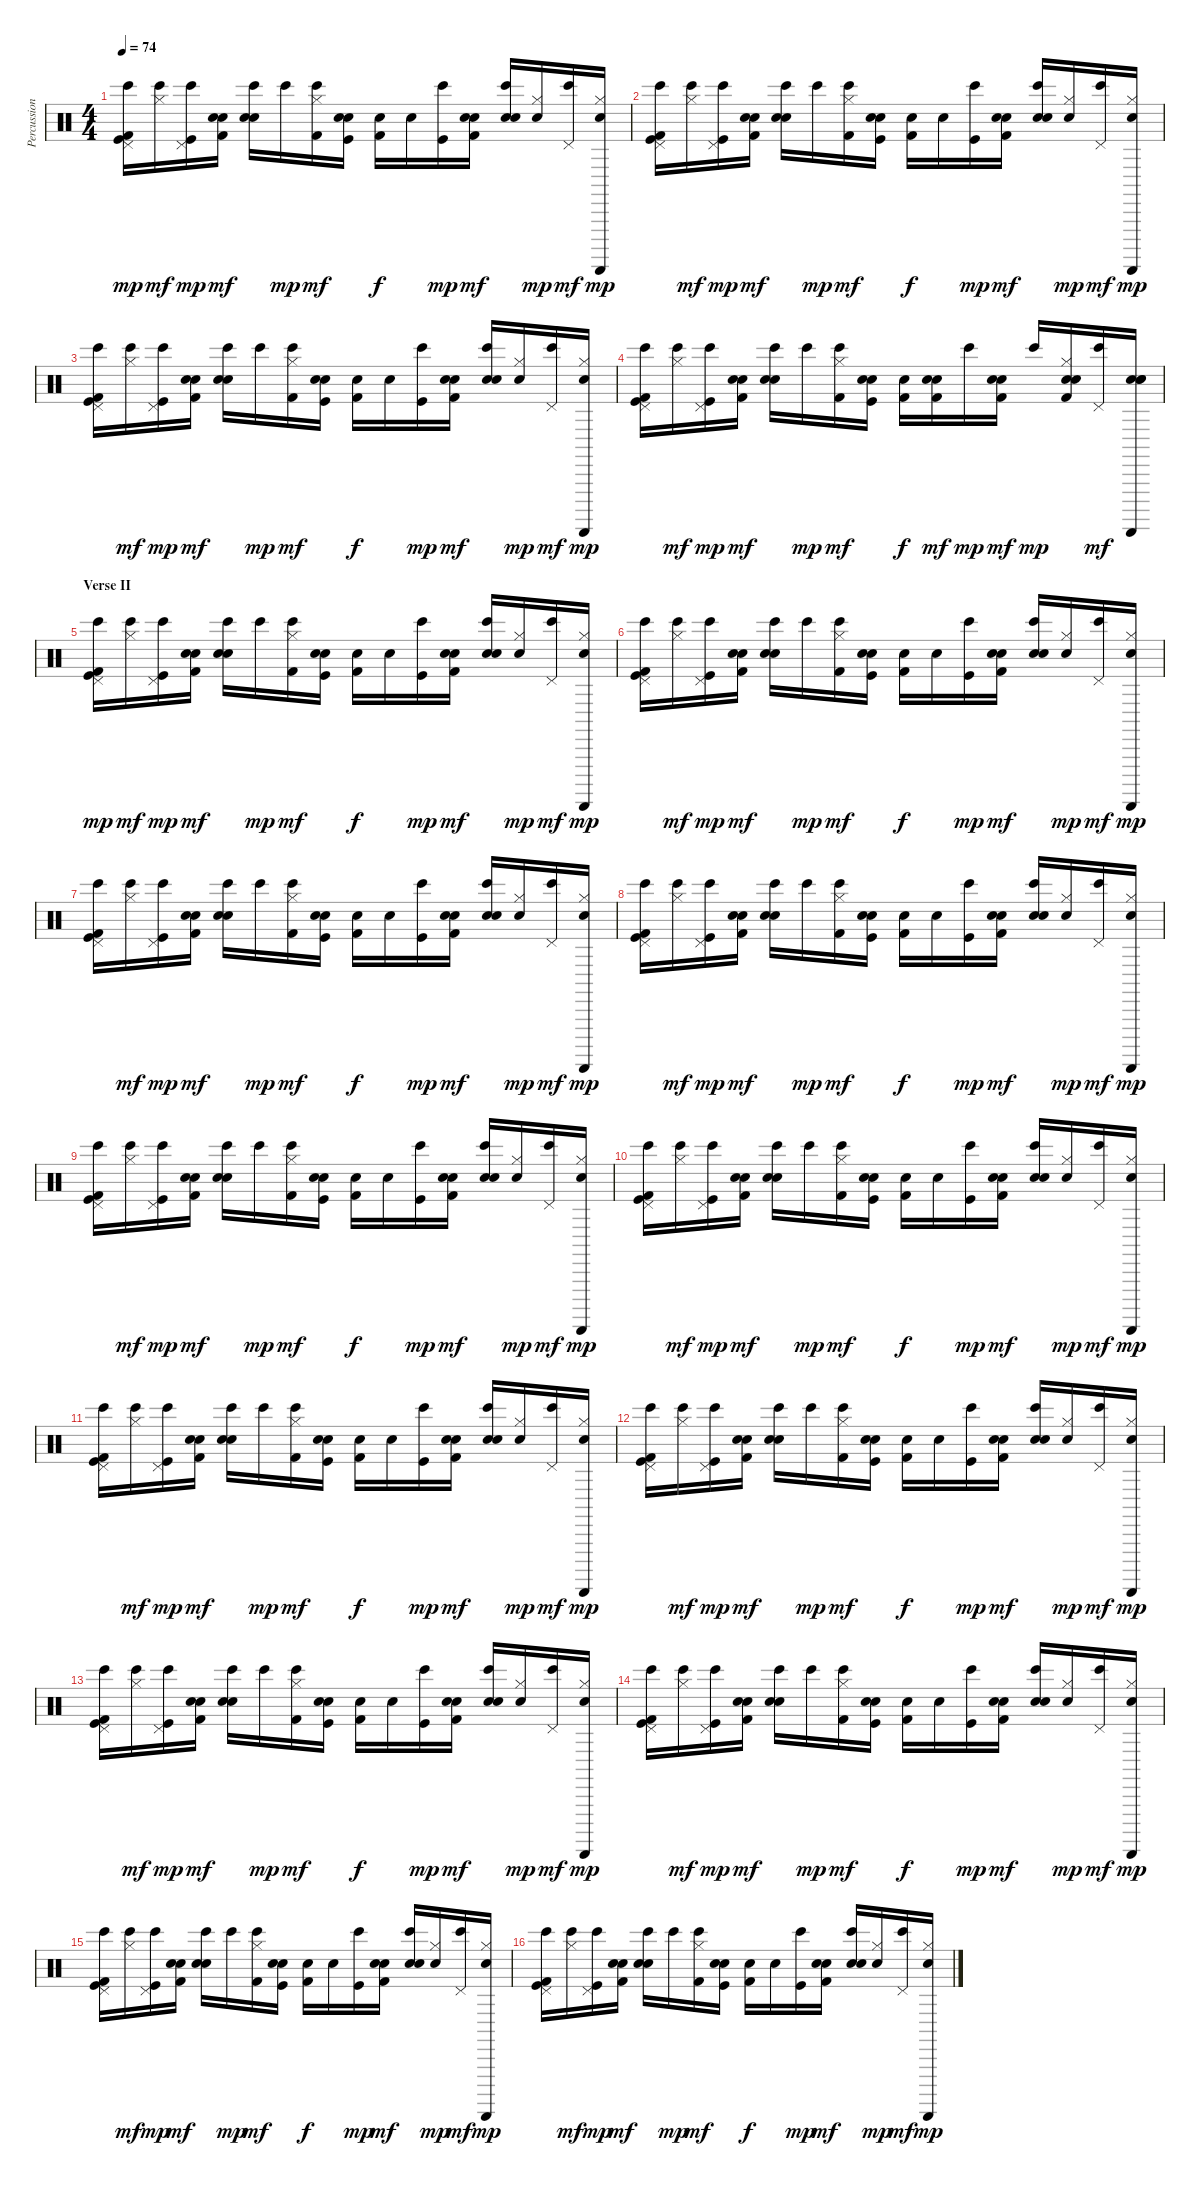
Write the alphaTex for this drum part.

\track ("Percussion" "Percussion") {instrument percussion}
\staff {score}
\articulation defaults
\ts (4 4)
\tempo 74
\clef neutral
\ks c
("Bongo High (hit)" "Pedal Hi-Hat (hit)" "Kick (hit) 2" "Kick (hit)").16{dy mp} ("Bongo High (hit)" "Hi-Hat (closed)").16{dy mf} ("Bongo High (hit)" "Pedal Hi-Hat (hit)" "Kick (hit)").16{dy mp} ("Snare (hit)" "Electric Snare (hit)" "Kick (hit) 2").16{dy mf} ("Bongo High (hit)" "Electric Snare (hit)" "Snare (hit) 2").16 "Bongo High (hit)".16{dy mp} ("Bongo High (hit)" "Hi-Hat (closed)" "Kick (hit) 2").16{dy mf} ("Snare (hit)" "Electric Snare (hit)" "Kick (hit)").16 ("Snare (hit)" "Kick (hit) 2").16{dy f} "Snare (hit)".16 ("Bongo High (hit)" "Kick (hit)").16{dy mp} ("Snare (hit)" "Electric Snare (hit)" "Kick (hit) 2").16{dy mf} ("Bongo High (hit)" "Electric Snare (hit)" "Snare (hit) 2").16 ("Snare (hit)" "Hi-Hat (closed)").16{dy mp} ("Bongo High (hit)" "Pedal Hi-Hat (hit)").16{dy mf} ("Snare (hit)" "Guiro (scrap-return)" "Hi-Hat (closed)").16{dy mp} |
("Bongo High (hit)" "Pedal Hi-Hat (hit)" "Kick (hit) 2" "Kick (hit)").16 ("Bongo High (hit)" "Hi-Hat (closed)").16{dy mf} ("Bongo High (hit)" "Pedal Hi-Hat (hit)" "Kick (hit)").16{dy mp} ("Snare (hit)" "Electric Snare (hit)" "Kick (hit) 2").16{dy mf} ("Bongo High (hit)" "Electric Snare (hit)" "Snare (hit) 2").16 "Bongo High (hit)".16{dy mp} ("Bongo High (hit)" "Hi-Hat (closed)" "Kick (hit) 2").16{dy mf} ("Snare (hit)" "Electric Snare (hit)" "Kick (hit)").16 ("Snare (hit)" "Kick (hit) 2").16{dy f} "Snare (hit)".16 ("Bongo High (hit)" "Kick (hit)").16{dy mp} ("Snare (hit)" "Electric Snare (hit)" "Kick (hit) 2").16{dy mf} ("Bongo High (hit)" "Electric Snare (hit)" "Snare (hit) 2").16 ("Snare (hit)" "Hi-Hat (closed)").16{dy mp} ("Bongo High (hit)" "Pedal Hi-Hat (hit)").16{dy mf} ("Snare (hit)" "Guiro (scrap-return)" "Hi-Hat (closed)").16{dy mp} |
("Bongo High (hit)" "Pedal Hi-Hat (hit)" "Kick (hit) 2" "Kick (hit)").16 ("Bongo High (hit)" "Hi-Hat (closed)").16{dy mf} ("Bongo High (hit)" "Pedal Hi-Hat (hit)" "Kick (hit)").16{dy mp} ("Snare (hit)" "Electric Snare (hit)" "Kick (hit) 2").16{dy mf} ("Bongo High (hit)" "Electric Snare (hit)" "Snare (hit) 2").16 "Bongo High (hit)".16{dy mp} ("Bongo High (hit)" "Hi-Hat (closed)" "Kick (hit) 2").16{dy mf} ("Snare (hit)" "Electric Snare (hit)" "Kick (hit)").16 ("Snare (hit)" "Kick (hit) 2").16{dy f} "Snare (hit)".16 ("Bongo High (hit)" "Kick (hit)").16{dy mp} ("Snare (hit)" "Electric Snare (hit)" "Kick (hit) 2").16{dy mf} ("Bongo High (hit)" "Electric Snare (hit)" "Snare (hit) 2").16 ("Snare (hit)" "Hi-Hat (closed)").16{dy mp} ("Bongo High (hit)" "Pedal Hi-Hat (hit)").16{dy mf} ("Snare (hit)" "Guiro (scrap-return)" "Hi-Hat (closed)").16{dy mp} |
("Bongo High (hit)" "Pedal Hi-Hat (hit)" "Kick (hit) 2" "Kick (hit)").16 ("Bongo High (hit)" "Hi-Hat (closed)").16{dy mf} ("Bongo High (hit)" "Pedal Hi-Hat (hit)" "Kick (hit)").16{dy mp} ("Snare (hit)" "Electric Snare (hit)" "Kick (hit) 2").16{dy mf} ("Bongo High (hit)" "Electric Snare (hit)" "Snare (hit) 2").16 "Bongo High (hit)".16{dy mp} ("Bongo High (hit)" "Hi-Hat (closed)" "Kick (hit) 2").16{dy mf} ("Snare (hit)" "Electric Snare (hit)" "Kick (hit)").16 ("Snare (hit)" "Kick (hit) 2").16{dy f} ("Snare (hit)" "Electric Snare (hit)" "Kick (hit) 2").16{dy mf} "Bongo High (hit)".16{dy mp} ("Snare (hit)" "Electric Snare (hit)" "Kick (hit) 2").16{dy mf} "Bongo High (hit)".16{dy mp} ("Snare (hit)" "Hi-Hat (closed)" "Electric Snare (hit)" "Kick (hit) 2").16 ("Bongo High (hit)" "Pedal Hi-Hat (hit)").16{dy mf} ("Snare (hit)" "Guiro (scrap-return)" "Electric Snare (hit)" "Snare (hit) 2").16 |
\section ("" "Verse II")
("Bongo High (hit)" "Pedal Hi-Hat (hit)" "Kick (hit) 2" "Kick (hit)").16{dy mp} ("Bongo High (hit)" "Hi-Hat (closed)").16{dy mf} ("Bongo High (hit)" "Pedal Hi-Hat (hit)" "Kick (hit)").16{dy mp} ("Snare (hit)" "Electric Snare (hit)" "Kick (hit) 2").16{dy mf} ("Bongo High (hit)" "Electric Snare (hit)" "Snare (hit) 2").16 "Bongo High (hit)".16{dy mp} ("Bongo High (hit)" "Hi-Hat (closed)" "Kick (hit) 2").16{dy mf} ("Snare (hit)" "Electric Snare (hit)" "Kick (hit)").16 ("Snare (hit)" "Kick (hit) 2").16{dy f} "Snare (hit)".16 ("Bongo High (hit)" "Kick (hit)").16{dy mp} ("Snare (hit)" "Electric Snare (hit)" "Kick (hit) 2").16{dy mf} ("Bongo High (hit)" "Electric Snare (hit)" "Snare (hit) 2").16 ("Snare (hit)" "Hi-Hat (closed)").16{dy mp} ("Bongo High (hit)" "Pedal Hi-Hat (hit)").16{dy mf} ("Snare (hit)" "Guiro (scrap-return)" "Hi-Hat (closed)").16{dy mp} |
("Bongo High (hit)" "Pedal Hi-Hat (hit)" "Kick (hit) 2" "Kick (hit)").16 ("Bongo High (hit)" "Hi-Hat (closed)").16{dy mf} ("Bongo High (hit)" "Pedal Hi-Hat (hit)" "Kick (hit)").16{dy mp} ("Snare (hit)" "Electric Snare (hit)" "Kick (hit) 2").16{dy mf} ("Bongo High (hit)" "Electric Snare (hit)" "Snare (hit) 2").16 "Bongo High (hit)".16{dy mp} ("Bongo High (hit)" "Hi-Hat (closed)" "Kick (hit) 2").16{dy mf} ("Snare (hit)" "Electric Snare (hit)" "Kick (hit)").16 ("Snare (hit)" "Kick (hit) 2").16{dy f} "Snare (hit)".16 ("Bongo High (hit)" "Kick (hit)").16{dy mp} ("Snare (hit)" "Electric Snare (hit)" "Kick (hit) 2").16{dy mf} ("Bongo High (hit)" "Electric Snare (hit)" "Snare (hit) 2").16 ("Snare (hit)" "Hi-Hat (closed)").16{dy mp} ("Bongo High (hit)" "Pedal Hi-Hat (hit)").16{dy mf} ("Snare (hit)" "Guiro (scrap-return)" "Hi-Hat (closed)").16{dy mp} |
("Bongo High (hit)" "Pedal Hi-Hat (hit)" "Kick (hit) 2" "Kick (hit)").16 ("Bongo High (hit)" "Hi-Hat (closed)").16{dy mf} ("Bongo High (hit)" "Pedal Hi-Hat (hit)" "Kick (hit)").16{dy mp} ("Snare (hit)" "Electric Snare (hit)" "Kick (hit) 2").16{dy mf} ("Bongo High (hit)" "Electric Snare (hit)" "Snare (hit) 2").16 "Bongo High (hit)".16{dy mp} ("Bongo High (hit)" "Hi-Hat (closed)" "Kick (hit) 2").16{dy mf} ("Snare (hit)" "Electric Snare (hit)" "Kick (hit)").16 ("Snare (hit)" "Kick (hit) 2").16{dy f} "Snare (hit)".16 ("Bongo High (hit)" "Kick (hit)").16{dy mp} ("Snare (hit)" "Electric Snare (hit)" "Kick (hit) 2").16{dy mf} ("Bongo High (hit)" "Electric Snare (hit)" "Snare (hit) 2").16 ("Snare (hit)" "Hi-Hat (closed)").16{dy mp} ("Bongo High (hit)" "Pedal Hi-Hat (hit)").16{dy mf} ("Snare (hit)" "Guiro (scrap-return)" "Hi-Hat (closed)").16{dy mp} |
("Bongo High (hit)" "Pedal Hi-Hat (hit)" "Kick (hit) 2" "Kick (hit)").16 ("Bongo High (hit)" "Hi-Hat (closed)").16{dy mf} ("Bongo High (hit)" "Pedal Hi-Hat (hit)" "Kick (hit)").16{dy mp} ("Snare (hit)" "Electric Snare (hit)" "Kick (hit) 2").16{dy mf} ("Bongo High (hit)" "Electric Snare (hit)" "Snare (hit) 2").16 "Bongo High (hit)".16{dy mp} ("Bongo High (hit)" "Hi-Hat (closed)" "Kick (hit) 2").16{dy mf} ("Snare (hit)" "Electric Snare (hit)" "Kick (hit)").16 ("Snare (hit)" "Kick (hit) 2").16{dy f} "Snare (hit)".16 ("Bongo High (hit)" "Kick (hit)").16{dy mp} ("Snare (hit)" "Electric Snare (hit)" "Kick (hit) 2").16{dy mf} ("Bongo High (hit)" "Electric Snare (hit)" "Snare (hit) 2").16 ("Snare (hit)" "Hi-Hat (closed)").16{dy mp} ("Bongo High (hit)" "Pedal Hi-Hat (hit)").16{dy mf} ("Snare (hit)" "Guiro (scrap-return)" "Hi-Hat (closed)").16{dy mp} |
("Bongo High (hit)" "Pedal Hi-Hat (hit)" "Kick (hit) 2" "Kick (hit)").16 ("Bongo High (hit)" "Hi-Hat (closed)").16{dy mf} ("Bongo High (hit)" "Pedal Hi-Hat (hit)" "Kick (hit)").16{dy mp} ("Snare (hit)" "Electric Snare (hit)" "Kick (hit) 2").16{dy mf} ("Bongo High (hit)" "Electric Snare (hit)" "Snare (hit) 2").16 "Bongo High (hit)".16{dy mp} ("Bongo High (hit)" "Hi-Hat (closed)" "Kick (hit) 2").16{dy mf} ("Snare (hit)" "Electric Snare (hit)" "Kick (hit)").16 ("Snare (hit)" "Kick (hit) 2").16{dy f} "Snare (hit)".16 ("Bongo High (hit)" "Kick (hit)").16{dy mp} ("Snare (hit)" "Electric Snare (hit)" "Kick (hit) 2").16{dy mf} ("Bongo High (hit)" "Electric Snare (hit)" "Snare (hit) 2").16 ("Snare (hit)" "Hi-Hat (closed)").16{dy mp} ("Bongo High (hit)" "Pedal Hi-Hat (hit)").16{dy mf} ("Snare (hit)" "Guiro (scrap-return)" "Hi-Hat (closed)").16{dy mp} |
("Bongo High (hit)" "Pedal Hi-Hat (hit)" "Kick (hit) 2" "Kick (hit)").16 ("Bongo High (hit)" "Hi-Hat (closed)").16{dy mf} ("Bongo High (hit)" "Pedal Hi-Hat (hit)" "Kick (hit)").16{dy mp} ("Snare (hit)" "Electric Snare (hit)" "Kick (hit) 2").16{dy mf} ("Bongo High (hit)" "Electric Snare (hit)" "Snare (hit) 2").16 "Bongo High (hit)".16{dy mp} ("Bongo High (hit)" "Hi-Hat (closed)" "Kick (hit) 2").16{dy mf} ("Snare (hit)" "Electric Snare (hit)" "Kick (hit)").16 ("Snare (hit)" "Kick (hit) 2").16{dy f} "Snare (hit)".16 ("Bongo High (hit)" "Kick (hit)").16{dy mp} ("Snare (hit)" "Electric Snare (hit)" "Kick (hit) 2").16{dy mf} ("Bongo High (hit)" "Electric Snare (hit)" "Snare (hit) 2").16 ("Snare (hit)" "Hi-Hat (closed)").16{dy mp} ("Bongo High (hit)" "Pedal Hi-Hat (hit)").16{dy mf} ("Snare (hit)" "Guiro (scrap-return)" "Hi-Hat (closed)").16{dy mp} |
("Bongo High (hit)" "Pedal Hi-Hat (hit)" "Kick (hit) 2" "Kick (hit)").16 ("Bongo High (hit)" "Hi-Hat (closed)").16{dy mf} ("Bongo High (hit)" "Pedal Hi-Hat (hit)" "Kick (hit)").16{dy mp} ("Snare (hit)" "Electric Snare (hit)" "Kick (hit) 2").16{dy mf} ("Bongo High (hit)" "Electric Snare (hit)" "Snare (hit) 2").16 "Bongo High (hit)".16{dy mp} ("Bongo High (hit)" "Hi-Hat (closed)" "Kick (hit) 2").16{dy mf} ("Snare (hit)" "Electric Snare (hit)" "Kick (hit)").16 ("Snare (hit)" "Kick (hit) 2").16{dy f} "Snare (hit)".16 ("Bongo High (hit)" "Kick (hit)").16{dy mp} ("Snare (hit)" "Electric Snare (hit)" "Kick (hit) 2").16{dy mf} ("Bongo High (hit)" "Electric Snare (hit)" "Snare (hit) 2").16 ("Snare (hit)" "Hi-Hat (closed)").16{dy mp} ("Bongo High (hit)" "Pedal Hi-Hat (hit)").16{dy mf} ("Snare (hit)" "Guiro (scrap-return)" "Hi-Hat (closed)").16{dy mp} |
("Bongo High (hit)" "Pedal Hi-Hat (hit)" "Kick (hit) 2" "Kick (hit)").16 ("Bongo High (hit)" "Hi-Hat (closed)").16{dy mf} ("Bongo High (hit)" "Pedal Hi-Hat (hit)" "Kick (hit)").16{dy mp} ("Snare (hit)" "Electric Snare (hit)" "Kick (hit) 2").16{dy mf} ("Bongo High (hit)" "Electric Snare (hit)" "Snare (hit) 2").16 "Bongo High (hit)".16{dy mp} ("Bongo High (hit)" "Hi-Hat (closed)" "Kick (hit) 2").16{dy mf} ("Snare (hit)" "Electric Snare (hit)" "Kick (hit)").16 ("Snare (hit)" "Kick (hit) 2").16{dy f} "Snare (hit)".16 ("Bongo High (hit)" "Kick (hit)").16{dy mp} ("Snare (hit)" "Electric Snare (hit)" "Kick (hit) 2").16{dy mf} ("Bongo High (hit)" "Electric Snare (hit)" "Snare (hit) 2").16 ("Snare (hit)" "Hi-Hat (closed)").16{dy mp} ("Bongo High (hit)" "Pedal Hi-Hat (hit)").16{dy mf} ("Snare (hit)" "Guiro (scrap-return)" "Hi-Hat (closed)").16{dy mp} |
("Bongo High (hit)" "Pedal Hi-Hat (hit)" "Kick (hit) 2" "Kick (hit)").16 ("Bongo High (hit)" "Hi-Hat (closed)").16{dy mf} ("Bongo High (hit)" "Pedal Hi-Hat (hit)" "Kick (hit)").16{dy mp} ("Snare (hit)" "Electric Snare (hit)" "Kick (hit) 2").16{dy mf} ("Bongo High (hit)" "Electric Snare (hit)" "Snare (hit) 2").16 "Bongo High (hit)".16{dy mp} ("Bongo High (hit)" "Hi-Hat (closed)" "Kick (hit) 2").16{dy mf} ("Snare (hit)" "Electric Snare (hit)" "Kick (hit)").16 ("Snare (hit)" "Kick (hit) 2").16{dy f} "Snare (hit)".16 ("Bongo High (hit)" "Kick (hit)").16{dy mp} ("Snare (hit)" "Electric Snare (hit)" "Kick (hit) 2").16{dy mf} ("Bongo High (hit)" "Electric Snare (hit)" "Snare (hit) 2").16 ("Snare (hit)" "Hi-Hat (closed)").16{dy mp} ("Bongo High (hit)" "Pedal Hi-Hat (hit)").16{dy mf} ("Snare (hit)" "Guiro (scrap-return)" "Hi-Hat (closed)").16{dy mp} |
("Bongo High (hit)" "Pedal Hi-Hat (hit)" "Kick (hit) 2" "Kick (hit)").16 ("Bongo High (hit)" "Hi-Hat (closed)").16{dy mf} ("Bongo High (hit)" "Pedal Hi-Hat (hit)" "Kick (hit)").16{dy mp} ("Snare (hit)" "Electric Snare (hit)" "Kick (hit) 2").16{dy mf} ("Bongo High (hit)" "Electric Snare (hit)" "Snare (hit) 2").16 "Bongo High (hit)".16{dy mp} ("Bongo High (hit)" "Hi-Hat (closed)" "Kick (hit) 2").16{dy mf} ("Snare (hit)" "Electric Snare (hit)" "Kick (hit)").16 ("Snare (hit)" "Kick (hit) 2").16{dy f} "Snare (hit)".16 ("Bongo High (hit)" "Kick (hit)").16{dy mp} ("Snare (hit)" "Electric Snare (hit)" "Kick (hit) 2").16{dy mf} ("Bongo High (hit)" "Electric Snare (hit)" "Snare (hit) 2").16 ("Snare (hit)" "Hi-Hat (closed)").16{dy mp} ("Bongo High (hit)" "Pedal Hi-Hat (hit)").16{dy mf} ("Snare (hit)" "Guiro (scrap-return)" "Hi-Hat (closed)").16{dy mp} |
("Bongo High (hit)" "Pedal Hi-Hat (hit)" "Kick (hit) 2" "Kick (hit)").16 ("Bongo High (hit)" "Hi-Hat (closed)").16{dy mf} ("Bongo High (hit)" "Pedal Hi-Hat (hit)" "Kick (hit)").16{dy mp} ("Snare (hit)" "Electric Snare (hit)" "Kick (hit) 2").16{dy mf} ("Bongo High (hit)" "Electric Snare (hit)" "Snare (hit) 2").16 "Bongo High (hit)".16{dy mp} ("Bongo High (hit)" "Hi-Hat (closed)" "Kick (hit) 2").16{dy mf} ("Snare (hit)" "Electric Snare (hit)" "Kick (hit)").16 ("Snare (hit)" "Kick (hit) 2").16{dy f} "Snare (hit)".16 ("Bongo High (hit)" "Kick (hit)").16{dy mp} ("Snare (hit)" "Electric Snare (hit)" "Kick (hit) 2").16{dy mf} ("Bongo High (hit)" "Electric Snare (hit)" "Snare (hit) 2").16 ("Snare (hit)" "Hi-Hat (closed)").16{dy mp} ("Bongo High (hit)" "Pedal Hi-Hat (hit)").16{dy mf} ("Snare (hit)" "Guiro (scrap-return)" "Hi-Hat (closed)").16{dy mp} |
("Bongo High (hit)" "Pedal Hi-Hat (hit)" "Kick (hit) 2" "Kick (hit)").16 ("Bongo High (hit)" "Hi-Hat (closed)").16{dy mf} ("Bongo High (hit)" "Pedal Hi-Hat (hit)" "Kick (hit)").16{dy mp} ("Snare (hit)" "Electric Snare (hit)" "Kick (hit) 2").16{dy mf} ("Bongo High (hit)" "Electric Snare (hit)" "Snare (hit) 2").16 "Bongo High (hit)".16{dy mp} ("Bongo High (hit)" "Hi-Hat (closed)" "Kick (hit) 2").16{dy mf} ("Snare (hit)" "Electric Snare (hit)" "Kick (hit)").16 ("Snare (hit)" "Kick (hit) 2").16{dy f} "Snare (hit)".16 ("Bongo High (hit)" "Kick (hit)").16{dy mp} ("Snare (hit)" "Electric Snare (hit)" "Kick (hit) 2").16{dy mf} ("Bongo High (hit)" "Electric Snare (hit)" "Snare (hit) 2").16 ("Snare (hit)" "Hi-Hat (closed)").16{dy mp} ("Bongo High (hit)" "Pedal Hi-Hat (hit)").16{dy mf} ("Snare (hit)" "Guiro (scrap-return)" "Hi-Hat (closed)").16{dy mp}
